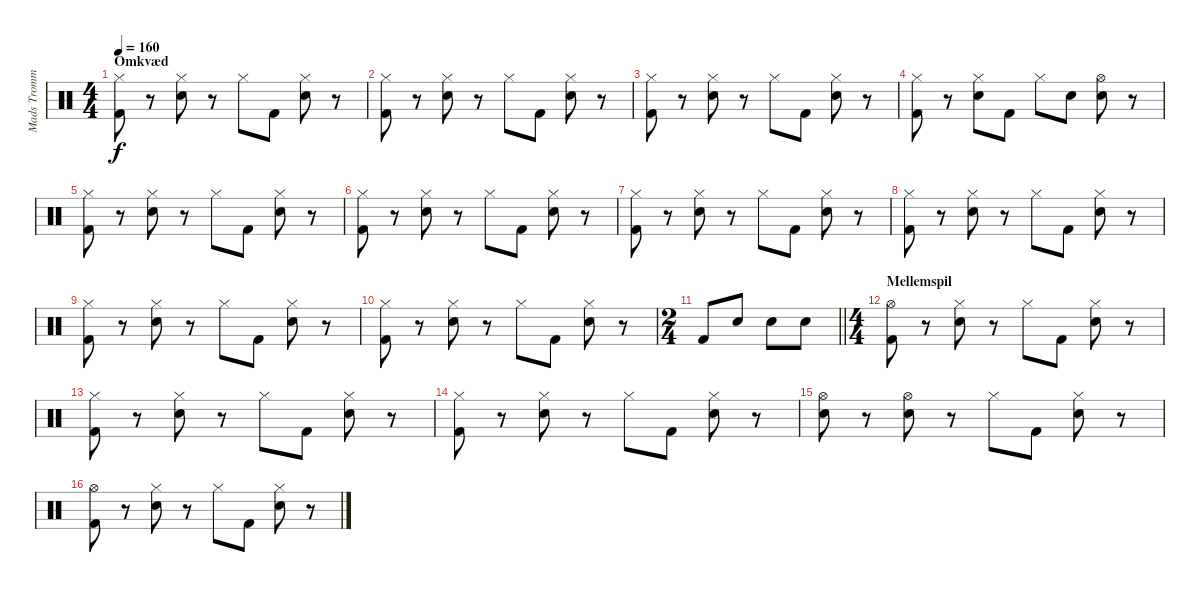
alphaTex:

\track ("Mads Trommer" "Mads Tromm") {instrument percussion}
\staff {score}
\articulation defaults
\ts (4 4)
\section ("" "Omkvæd")
\tempo 160
\clef neutral
\ks c
("Hi-Hat (closed)" "Kick (hit) 2").8{dy f} r.8 ("Hi-Hat (closed)" "Electric Snare (hit)").8 r.8 "Hi-Hat (closed)".8 "Kick (hit) 2".8 ("Hi-Hat (closed)" "Electric Snare (hit)").8 r.8 |
("Hi-Hat (closed)" "Kick (hit) 2").8 r.8 ("Hi-Hat (closed)" "Electric Snare (hit)").8 r.8 "Hi-Hat (closed)".8 "Kick (hit) 2".8 ("Hi-Hat (closed)" "Electric Snare (hit)").8 r.8 |
("Hi-Hat (closed)" "Kick (hit) 2").8 r.8 ("Hi-Hat (closed)" "Electric Snare (hit)").8 r.8 "Hi-Hat (closed)".8 "Kick (hit) 2".8 ("Hi-Hat (closed)" "Electric Snare (hit)").8 r.8 |
("Hi-Hat (closed)" "Kick (hit) 2").8 r.8 ("Hi-Hat (closed)" "Electric Snare (hit)").8 "Kick (hit) 2".8 "Hi-Hat (closed)".8 "Electric Snare (hit)".8 ("Hi-Hat (open)" "Electric Snare (hit)").8 r.8 |
("Hi-Hat (closed)" "Kick (hit) 2").8 r.8 ("Hi-Hat (closed)" "Electric Snare (hit)").8 r.8 "Hi-Hat (closed)".8 "Kick (hit) 2".8 ("Hi-Hat (closed)" "Electric Snare (hit)").8 r.8 |
("Hi-Hat (closed)" "Kick (hit) 2").8 r.8 ("Hi-Hat (closed)" "Electric Snare (hit)").8 r.8 "Hi-Hat (closed)".8 "Kick (hit) 2".8 ("Hi-Hat (closed)" "Electric Snare (hit)").8 r.8 |
("Hi-Hat (closed)" "Kick (hit) 2").8 r.8 ("Hi-Hat (closed)" "Electric Snare (hit)").8 r.8 "Hi-Hat (closed)".8 "Kick (hit) 2".8 ("Hi-Hat (closed)" "Electric Snare (hit)").8 r.8 |
("Hi-Hat (closed)" "Kick (hit) 2").8 r.8 ("Hi-Hat (closed)" "Electric Snare (hit)").8 r.8 "Hi-Hat (closed)".8 "Kick (hit) 2".8 ("Hi-Hat (closed)" "Electric Snare (hit)").8 r.8 |
("Hi-Hat (closed)" "Kick (hit) 2").8 r.8 ("Hi-Hat (closed)" "Electric Snare (hit)").8 r.8 "Hi-Hat (closed)".8 "Kick (hit) 2".8 ("Hi-Hat (closed)" "Electric Snare (hit)").8 r.8 |
("Hi-Hat (closed)" "Kick (hit) 2").8 r.8 ("Hi-Hat (closed)" "Electric Snare (hit)").8 r.8 "Hi-Hat (closed)".8 "Kick (hit) 2".8 ("Hi-Hat (closed)" "Electric Snare (hit)").8 r.8 |
\ts (2 4)
\barLineRight lightlight "Kick (hit) 2".8 "Electric Snare (hit)".8 "Electric Snare (hit)".8 "Electric Snare (hit)".8
|
\ts (4 4)
\section ("" "Mellemspil")
("Hi-Hat (open)" "Kick (hit) 2").8 r.8 ("Hi-Hat (closed)" "Electric Snare (hit)").8 r.8 "Hi-Hat (closed)".8 "Kick (hit) 2".8 ("Hi-Hat (closed)" "Electric Snare (hit)").8 r.8 |
("Hi-Hat (closed)" "Kick (hit) 2").8 r.8 ("Hi-Hat (closed)" "Electric Snare (hit)").8 r.8 "Hi-Hat (closed)".8 "Kick (hit) 2".8 ("Hi-Hat (closed)" "Electric Snare (hit)").8 r.8 |
("Hi-Hat (closed)" "Kick (hit) 2").8 r.8 ("Hi-Hat (closed)" "Electric Snare (hit)").8 r.8 "Hi-Hat (closed)".8 "Kick (hit) 2".8 ("Hi-Hat (closed)" "Electric Snare (hit)").8 r.8 |
("Hi-Hat (open)" "Electric Snare (hit)").8 r.8 ("Hi-Hat (open)" "Electric Snare (hit)").8 r.8 "Hi-Hat (closed)".8 "Kick (hit) 2".8 ("Hi-Hat (closed)" "Electric Snare (hit)").8 r.8 |
("Hi-Hat (open)" "Kick (hit) 2").8 r.8 ("Hi-Hat (closed)" "Electric Snare (hit)").8 r.8 "Hi-Hat (closed)".8 "Kick (hit) 2".8 ("Hi-Hat (closed)" "Electric Snare (hit)").8 r.8
